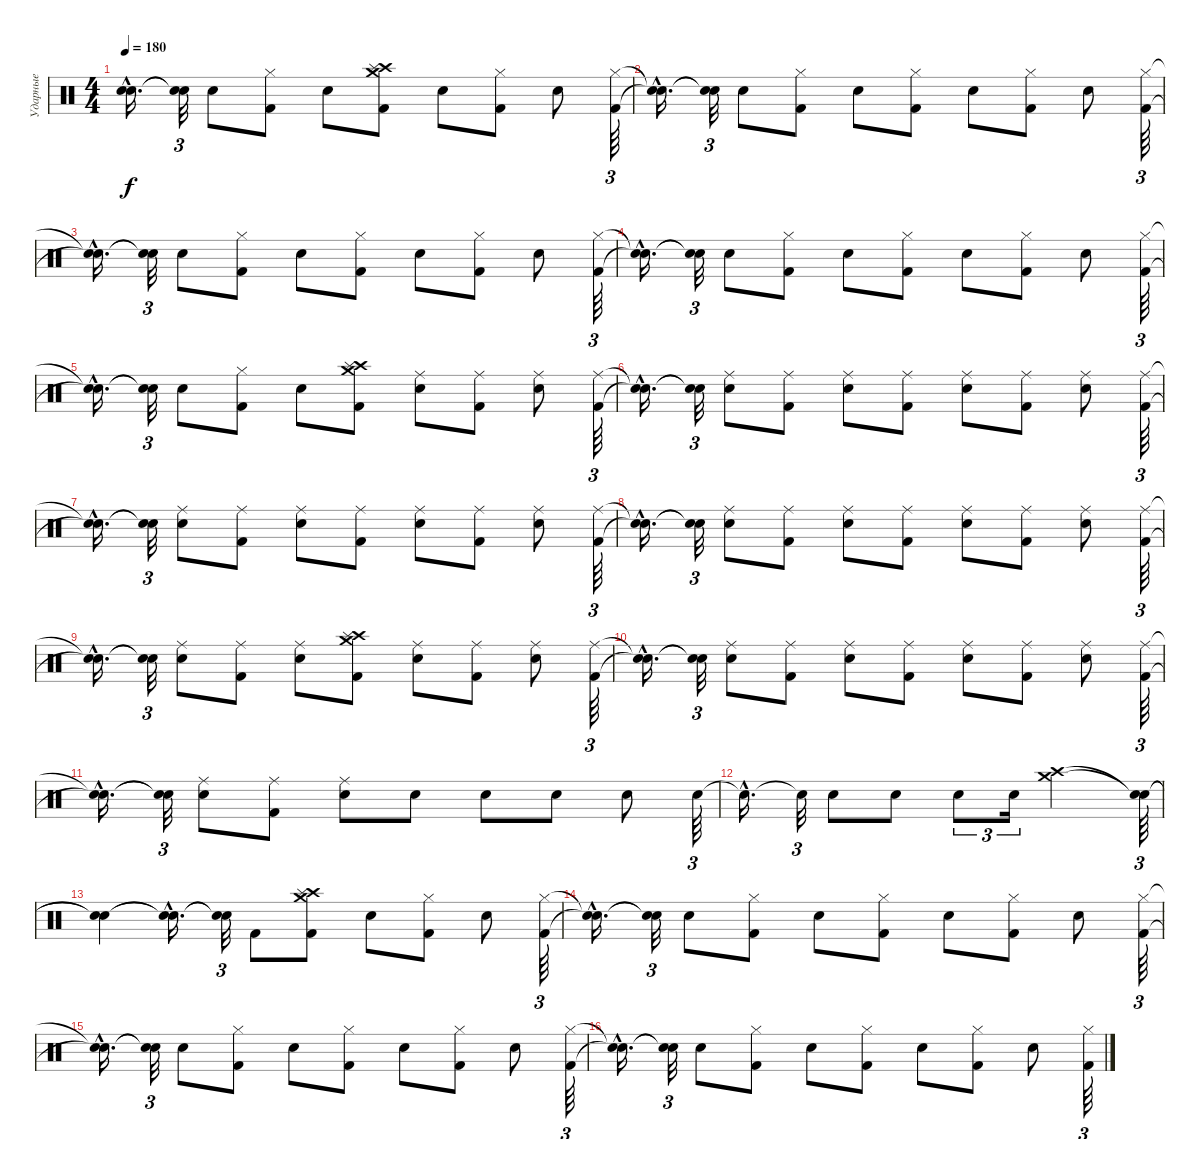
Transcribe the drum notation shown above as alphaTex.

\track ("Ударные" "Ударные") {instrument percussion}
\staff {score}
\articulation defaults
\ts (4 4)
\tempo 180
\clef neutral
\ks c
("Snare (hit)"{hac t} "Snare (hit)"{hac t}).16{d dy f} ("Snare (hit)"{t} "Snare (hit)"{t}).32{tu (3 2)} "Snare (hit) 2".8 ("Hi-Hat (closed)" "Kick (hit) 2").8 "Snare (hit) 2".8 ("Crash high (hit)" "Crash medium (hit)" "Splash (hit)" "Kick (hit) 2").8 "Snare (hit) 2".8 ("Hi-Hat (closed)" "Kick (hit) 2").8 "Snare (hit) 2".8 ("Hi-Hat (closed)" "Kick (hit) 2").64{tu (3 2)} |
("Snare (hit)"{hac t} "Snare (hit)"{hac t}).16{d} ("Snare (hit)"{t} "Snare (hit)"{t}).32{tu (3 2)} "Snare (hit) 2".8 ("Hi-Hat (closed)" "Kick (hit) 2").8 "Snare (hit) 2".8 ("Hi-Hat (closed)" "Kick (hit) 2").8 "Snare (hit) 2".8 ("Hi-Hat (closed)" "Kick (hit) 2").8 "Snare (hit) 2".8 ("Hi-Hat (closed)" "Kick (hit) 2").64{tu (3 2)} |
("Snare (hit)"{hac t} "Snare (hit)"{hac t}).16{d} ("Snare (hit)"{t} "Snare (hit)"{t}).32{tu (3 2)} "Snare (hit) 2".8 ("Hi-Hat (closed)" "Kick (hit) 2").8 "Snare (hit) 2".8 ("Hi-Hat (closed)" "Kick (hit) 2").8 "Snare (hit) 2".8 ("Hi-Hat (closed)" "Kick (hit) 2").8 "Snare (hit) 2".8 ("Hi-Hat (closed)" "Kick (hit) 2").64{tu (3 2)} |
("Snare (hit)"{hac t} "Snare (hit)"{hac t}).16{d} ("Snare (hit)"{t} "Snare (hit)"{t}).32{tu (3 2)} "Snare (hit) 2".8 ("Hi-Hat (closed)" "Kick (hit) 2").8 "Snare (hit) 2".8 ("Hi-Hat (closed)" "Kick (hit) 2").8 "Snare (hit) 2".8 ("Hi-Hat (closed)" "Kick (hit) 2").8 "Snare (hit) 2".8 ("Hi-Hat (closed)" "Kick (hit) 2").64{tu (3 2)} |
("Snare (hit)"{hac t} "Snare (hit)"{hac t}).16{d} ("Snare (hit)"{t} "Snare (hit)"{t}).32{tu (3 2)} "Snare (hit) 2".8 ("Hi-Hat (closed)" "Kick (hit) 2").8 "Snare (hit) 2".8 ("Crash high (hit)" "Crash medium (hit)" "Splash (hit)" "Kick (hit) 2").8 ("Ride (middle)" "Snare (hit) 2").8 ("Ride (middle)" "Kick (hit) 2").8 ("Ride (middle)" "Snare (hit) 2").8 ("Ride (middle)" "Kick (hit) 2").64{tu (3 2)} |
("Snare (hit)"{hac t} "Snare (hit)"{hac t}).16{d} ("Snare (hit)"{t} "Snare (hit)"{t}).32{tu (3 2)} ("Ride (middle)" "Snare (hit) 2").8 ("Ride (middle)" "Kick (hit) 2").8 ("Ride (middle)" "Snare (hit) 2").8 ("Ride (middle)" "Kick (hit) 2").8 ("Ride (middle)" "Snare (hit) 2").8 ("Ride (middle)" "Kick (hit) 2").8 ("Ride (middle)" "Snare (hit) 2").8 ("Ride (middle)" "Kick (hit) 2").64{tu (3 2)} |
("Snare (hit)"{hac t} "Snare (hit)"{hac t}).16{d} ("Snare (hit)"{t} "Snare (hit)"{t}).32{tu (3 2)} ("Ride (middle)" "Snare (hit) 2").8 ("Ride (middle)" "Kick (hit) 2").8 ("Ride (middle)" "Snare (hit) 2").8 ("Ride (middle)" "Kick (hit) 2").8 ("Ride (middle)" "Snare (hit) 2").8 ("Ride (middle)" "Kick (hit) 2").8 ("Ride (middle)" "Snare (hit) 2").8 ("Ride (middle)" "Kick (hit) 2").64{tu (3 2)} |
("Snare (hit)"{hac t} "Snare (hit)"{hac t}).16{d} ("Snare (hit)"{t} "Snare (hit)"{t}).32{tu (3 2)} ("Ride (middle)" "Snare (hit) 2").8 ("Ride (middle)" "Kick (hit) 2").8 ("Ride (middle)" "Snare (hit) 2").8 ("Ride (middle)" "Kick (hit) 2").8 ("Ride (middle)" "Snare (hit) 2").8 ("Ride (middle)" "Kick (hit) 2").8 ("Ride (middle)" "Snare (hit) 2").8 ("Ride (middle)" "Kick (hit) 2").64{tu (3 2)} |
("Snare (hit)"{hac t} "Snare (hit)"{hac t}).16{d} ("Snare (hit)"{t} "Snare (hit)"{t}).32{tu (3 2)} ("Ride (middle)" "Snare (hit) 2").8 ("Ride (middle)" "Kick (hit) 2").8 ("Ride (middle)" "Snare (hit) 2").8 ("Crash high (hit)" "Crash medium (hit)" "Splash (hit)" "Kick (hit) 2").8 ("Ride (middle)" "Snare (hit) 2").8 ("Ride (middle)" "Kick (hit) 2").8 ("Ride (middle)" "Snare (hit) 2").8 ("Ride (middle)" "Kick (hit) 2").64{tu (3 2)} |
("Snare (hit)"{hac t} "Snare (hit)"{hac t}).16{d} ("Snare (hit)"{t} "Snare (hit)"{t}).32{tu (3 2)} ("Ride (middle)" "Snare (hit) 2").8 ("Ride (middle)" "Kick (hit) 2").8 ("Ride (middle)" "Snare (hit) 2").8 ("Ride (middle)" "Kick (hit) 2").8 ("Ride (middle)" "Snare (hit) 2").8 ("Ride (middle)" "Kick (hit) 2").8 ("Ride (middle)" "Snare (hit) 2").8 ("Ride (middle)" "Kick (hit) 2").64{tu (3 2)} |
("Snare (hit)"{hac t} "Snare (hit)"{hac t}).16{d} ("Snare (hit)"{t} "Snare (hit)"{t}).32{tu (3 2)} ("Ride (middle)" "Snare (hit) 2").8 ("Ride (middle)" "Kick (hit) 2").8 ("Ride (middle)" "Snare (hit) 2").8 "Snare (hit) 2".8 "Snare (hit) 2".8 "Snare (hit) 2".8 "Snare (hit) 2".8 "Snare (hit) 2".64{tu (3 2)} |
"Snare (hit)"{hac t}.16{d} "Snare (hit)"{t}.32{tu (3 2)} "Snare (hit) 2".8 "Snare (hit) 2".8 "Snare (hit) 2".8{tu (3 2)} "Snare (hit) 2".16{tu (3 2)} ("Crash high (hit)" "Crash medium (hit)").2 ("Snare (hit)"{t} "Snare (hit)"{t}).64{tu (3 2)} |
("Snare (hit)"{t} "Snare (hit)"{t}).4 ("Snare (hit)"{hac t} "Snare (hit)"{hac t}).16{d} ("Snare (hit)"{t} "Snare (hit)"{t}).32{tu (3 2)} "Kick (hit) 2".8 ("Crash high (hit)" "Crash medium (hit)" "Splash (hit)" "Kick (hit) 2").8 "Snare (hit) 2".8 ("Hi-Hat (closed)" "Kick (hit) 2").8 "Snare (hit) 2".8 ("Hi-Hat (closed)" "Kick (hit) 2").64{tu (3 2)} |
("Snare (hit)"{hac t} "Snare (hit)"{hac t}).16{d} ("Snare (hit)"{t} "Snare (hit)"{t}).32{tu (3 2)} "Snare (hit) 2".8 ("Hi-Hat (closed)" "Kick (hit) 2").8 "Snare (hit) 2".8 ("Hi-Hat (closed)" "Kick (hit) 2").8 "Snare (hit) 2".8 ("Hi-Hat (closed)" "Kick (hit) 2").8 "Snare (hit) 2".8 ("Hi-Hat (closed)" "Kick (hit) 2").64{tu (3 2)} |
("Snare (hit)"{hac t} "Snare (hit)"{hac t}).16{d} ("Snare (hit)"{t} "Snare (hit)"{t}).32{tu (3 2)} "Snare (hit) 2".8 ("Hi-Hat (closed)" "Kick (hit) 2").8 "Snare (hit) 2".8 ("Hi-Hat (closed)" "Kick (hit) 2").8 "Snare (hit) 2".8 ("Hi-Hat (closed)" "Kick (hit) 2").8 "Snare (hit) 2".8 ("Hi-Hat (closed)" "Kick (hit) 2").64{tu (3 2)} |
("Snare (hit)"{hac t} "Snare (hit)"{hac t}).16{d} ("Snare (hit)"{t} "Snare (hit)"{t}).32{tu (3 2)} "Snare (hit) 2".8 ("Hi-Hat (closed)" "Kick (hit) 2").8 "Snare (hit) 2".8 ("Hi-Hat (closed)" "Kick (hit) 2").8 "Snare (hit) 2".8 ("Hi-Hat (closed)" "Kick (hit) 2").8 "Snare (hit) 2".8 ("Hi-Hat (closed)" "Kick (hit) 2").64{tu (3 2)}
